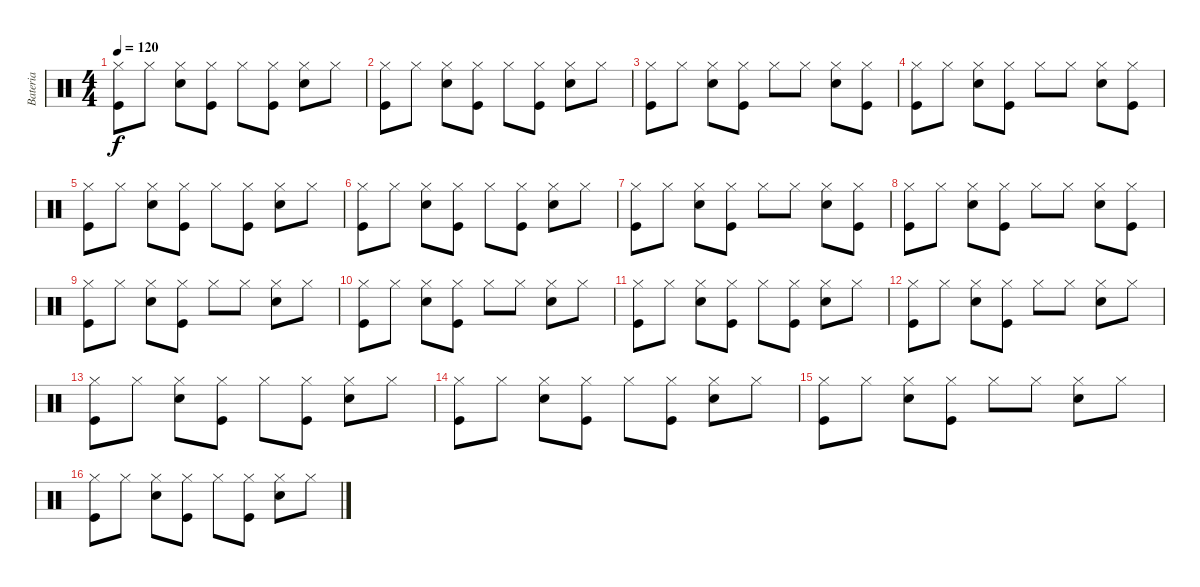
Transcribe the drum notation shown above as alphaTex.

\track ("Bateria" "Bateria") {instrument percussion}
\staff {score}
\articulation defaults
\ts (4 4)
\tempo 120
\clef neutral
\ks c
("Hi-Hat (closed)" "Kick (hit)").8{dy f} "Hi-Hat (closed)".8 ("Hi-Hat (closed)" "Electric Snare (hit)").8 ("Hi-Hat (closed)" "Kick (hit)").8 "Hi-Hat (closed)".8 ("Hi-Hat (closed)" "Kick (hit)").8 ("Hi-Hat (closed)" "Electric Snare (hit)").8 "Hi-Hat (closed)".8 |
("Hi-Hat (closed)" "Kick (hit)").8 "Hi-Hat (closed)".8 ("Hi-Hat (closed)" "Electric Snare (hit)").8 ("Hi-Hat (closed)" "Kick (hit)").8 "Hi-Hat (closed)".8 ("Hi-Hat (closed)" "Kick (hit)").8 ("Hi-Hat (closed)" "Electric Snare (hit)").8 "Hi-Hat (closed)".8 |
("Hi-Hat (closed)" "Kick (hit)").8 "Hi-Hat (closed)".8 ("Hi-Hat (closed)" "Electric Snare (hit)").8 ("Hi-Hat (closed)" "Kick (hit)").8 "Hi-Hat (closed)".8 "Hi-Hat (closed)".8 ("Hi-Hat (closed)" "Electric Snare (hit)").8 ("Hi-Hat (closed)" "Kick (hit)").8 |
("Hi-Hat (closed)" "Kick (hit)").8 "Hi-Hat (closed)".8 ("Hi-Hat (closed)" "Electric Snare (hit)").8 ("Hi-Hat (closed)" "Kick (hit)").8 "Hi-Hat (closed)".8 "Hi-Hat (closed)".8 ("Hi-Hat (closed)" "Electric Snare (hit)").8 ("Hi-Hat (closed)" "Kick (hit)").8 |
("Hi-Hat (closed)" "Kick (hit)").8 "Hi-Hat (closed)".8 ("Hi-Hat (closed)" "Electric Snare (hit)").8 ("Hi-Hat (closed)" "Kick (hit)").8 "Hi-Hat (closed)".8 ("Hi-Hat (closed)" "Kick (hit)").8 ("Hi-Hat (closed)" "Electric Snare (hit)").8 "Hi-Hat (closed)".8 |
("Hi-Hat (closed)" "Kick (hit)").8 "Hi-Hat (closed)".8 ("Hi-Hat (closed)" "Electric Snare (hit)").8 ("Hi-Hat (closed)" "Kick (hit)").8 "Hi-Hat (closed)".8 ("Hi-Hat (closed)" "Kick (hit)").8 ("Hi-Hat (closed)" "Electric Snare (hit)").8 "Hi-Hat (closed)".8 |
("Hi-Hat (closed)" "Kick (hit)").8 "Hi-Hat (closed)".8 ("Hi-Hat (closed)" "Electric Snare (hit)").8 ("Hi-Hat (closed)" "Kick (hit)").8 "Hi-Hat (closed)".8 "Hi-Hat (closed)".8 ("Hi-Hat (closed)" "Electric Snare (hit)").8 ("Hi-Hat (closed)" "Kick (hit)").8 |
("Hi-Hat (closed)" "Kick (hit)").8 "Hi-Hat (closed)".8 ("Hi-Hat (closed)" "Electric Snare (hit)").8 ("Hi-Hat (closed)" "Kick (hit)").8 "Hi-Hat (closed)".8 "Hi-Hat (closed)".8 ("Hi-Hat (closed)" "Electric Snare (hit)").8 ("Hi-Hat (closed)" "Kick (hit)").8 |
("Hi-Hat (closed)" "Kick (hit)").8 "Hi-Hat (closed)".8 ("Hi-Hat (closed)" "Electric Snare (hit)").8 ("Hi-Hat (closed)" "Kick (hit)").8 "Hi-Hat (closed)".8 "Hi-Hat (closed)".8 ("Hi-Hat (closed)" "Electric Snare (hit)").8 "Hi-Hat (closed)".8 |
("Hi-Hat (closed)" "Kick (hit)").8 "Hi-Hat (closed)".8 ("Hi-Hat (closed)" "Electric Snare (hit)").8 ("Hi-Hat (closed)" "Kick (hit)").8 "Hi-Hat (closed)".8 "Hi-Hat (closed)".8 ("Hi-Hat (closed)" "Electric Snare (hit)").8 "Hi-Hat (closed)".8 |
("Hi-Hat (closed)" "Kick (hit)").8 "Hi-Hat (closed)".8 ("Hi-Hat (closed)" "Electric Snare (hit)").8 ("Hi-Hat (closed)" "Kick (hit)").8 "Hi-Hat (closed)".8 ("Hi-Hat (closed)" "Kick (hit)").8 ("Hi-Hat (closed)" "Electric Snare (hit)").8 "Hi-Hat (closed)".8 |
("Hi-Hat (closed)" "Kick (hit)").8 "Hi-Hat (closed)".8 ("Hi-Hat (closed)" "Electric Snare (hit)").8 ("Hi-Hat (closed)" "Kick (hit)").8 "Hi-Hat (closed)".8 "Hi-Hat (closed)".8 ("Hi-Hat (closed)" "Electric Snare (hit)").8 "Hi-Hat (closed)".8 |
("Hi-Hat (closed)" "Kick (hit)").8 "Hi-Hat (closed)".8 ("Hi-Hat (closed)" "Electric Snare (hit)").8 ("Hi-Hat (closed)" "Kick (hit)").8 "Hi-Hat (closed)".8 ("Hi-Hat (closed)" "Kick (hit)").8 ("Hi-Hat (closed)" "Electric Snare (hit)").8 "Hi-Hat (closed)".8 |
("Hi-Hat (closed)" "Kick (hit)").8 "Hi-Hat (closed)".8 ("Hi-Hat (closed)" "Electric Snare (hit)").8 ("Hi-Hat (closed)" "Kick (hit)").8 "Hi-Hat (closed)".8 ("Hi-Hat (closed)" "Kick (hit)").8 ("Hi-Hat (closed)" "Electric Snare (hit)").8 "Hi-Hat (closed)".8 |
("Hi-Hat (closed)" "Kick (hit)").8 "Hi-Hat (closed)".8 ("Hi-Hat (closed)" "Electric Snare (hit)").8 ("Hi-Hat (closed)" "Kick (hit)").8 "Hi-Hat (closed)".8 "Hi-Hat (closed)".8 ("Hi-Hat (closed)" "Electric Snare (hit)").8 "Hi-Hat (closed)".8 |
("Hi-Hat (closed)" "Kick (hit)").8 "Hi-Hat (closed)".8 ("Hi-Hat (closed)" "Electric Snare (hit)").8 ("Hi-Hat (closed)" "Kick (hit)").8 "Hi-Hat (closed)".8 ("Hi-Hat (closed)" "Kick (hit)").8 ("Hi-Hat (closed)" "Electric Snare (hit)").8 "Hi-Hat (closed)".8
